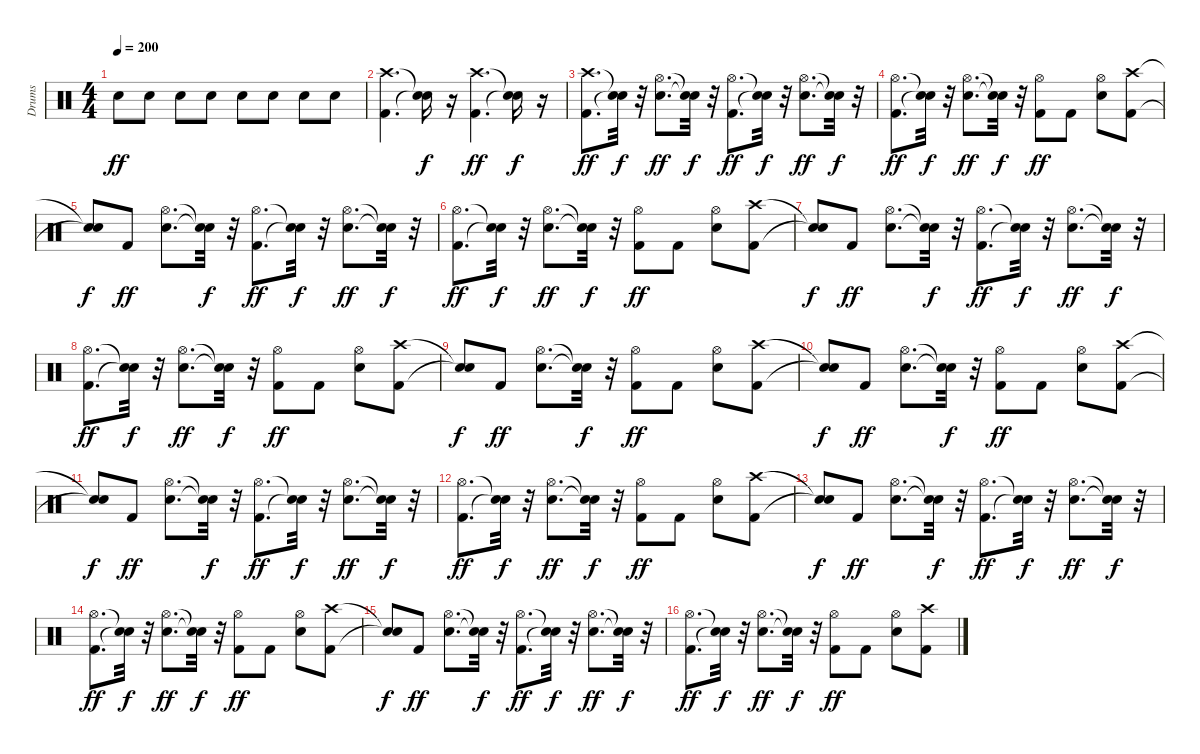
\track ("Drums" "Drums") {instrument percussion}
\staff {score}
\articulation defaults
\ts (4 4)
\tempo 200
\clef neutral
\ks c "Snare (hit) 2".8{dy ff} "Snare (hit) 2".8 "Snare (hit) 2".8 "Snare (hit) 2".8 "Snare (hit) 2".8 "Snare (hit) 2".8 "Snare (hit) 2".8 "Snare (hit) 2".8
|
("Kick (hit) 2" "Crash high (hit)").4{d} ("Snare (hit)"{t} "Snare (hit)"{t}).16{dy f} r.16 ("Kick (hit) 2" "Crash high (hit)").4{d dy ff} ("Snare (hit)"{t} "Snare (hit)"{t}).16{dy f} r.16 |
("Kick (hit) 2" "Crash high (hit)").8{d dy ff} ("Snare (hit)"{t} "Snare (hit)"{t}).32{dy f} r.32 ("Snare (hit) 2" "Hi-Hat (open)").8{d dy ff} ("Snare (hit)"{t} "Snare (hit)"{t}).32{dy f} r.32 ("Kick (hit) 2" "Hi-Hat (open)").8{d dy ff} ("Snare (hit)"{t} "Snare (hit)"{t}).32{dy f} r.32 ("Snare (hit) 2" "Hi-Hat (open)").8{d dy ff} ("Snare (hit)"{t} "Snare (hit)"{t}).32{dy f} r.32 |
("Kick (hit) 2" "Hi-Hat (open)").8{d dy ff} ("Snare (hit)"{t} "Snare (hit)"{t}).32{dy f} r.32 ("Snare (hit) 2" "Hi-Hat (open)").8{d dy ff} ("Snare (hit)"{t} "Snare (hit)"{t}).32{dy f} r.32 ("Kick (hit) 2" "Hi-Hat (open)").8{dy ff} "Kick (hit) 2".8 ("Snare (hit) 2" "Hi-Hat (open)").8 ("Kick (hit) 2" "Crash high (hit)").8 |
("Snare (hit)"{t} "Snare (hit)"{t}).8{dy f} "Kick (hit) 2".8{dy ff} ("Snare (hit) 2" "Hi-Hat (open)").8{d} ("Snare (hit)"{t} "Snare (hit)"{t}).32{dy f} r.32 ("Kick (hit) 2" "Hi-Hat (open)").8{d dy ff} ("Snare (hit)"{t} "Snare (hit)"{t}).32{dy f} r.32 ("Snare (hit) 2" "Hi-Hat (open)").8{d dy ff} ("Snare (hit)"{t} "Snare (hit)"{t}).32{dy f} r.32 |
("Kick (hit) 2" "Hi-Hat (open)").8{d dy ff} ("Snare (hit)"{t} "Snare (hit)"{t}).32{dy f} r.32 ("Snare (hit) 2" "Hi-Hat (open)").8{d dy ff} ("Snare (hit)"{t} "Snare (hit)"{t}).32{dy f} r.32 ("Kick (hit) 2" "Hi-Hat (open)").8{dy ff} "Kick (hit) 2".8 ("Snare (hit) 2" "Hi-Hat (open)").8 ("Kick (hit) 2" "Crash high (hit)").8 |
("Snare (hit)"{t} "Snare (hit)"{t}).8{dy f} "Kick (hit) 2".8{dy ff} ("Snare (hit) 2" "Hi-Hat (open)").8{d} ("Snare (hit)"{t} "Snare (hit)"{t}).32{dy f} r.32 ("Kick (hit) 2" "Hi-Hat (open)").8{d dy ff} ("Snare (hit)"{t} "Snare (hit)"{t}).32{dy f} r.32 ("Snare (hit) 2" "Hi-Hat (open)").8{d dy ff} ("Snare (hit)"{t} "Snare (hit)"{t}).32{dy f} r.32 |
("Kick (hit) 2" "Hi-Hat (open)").8{d dy ff} ("Snare (hit)"{t} "Snare (hit)"{t}).32{dy f} r.32 ("Snare (hit) 2" "Hi-Hat (open)").8{d dy ff} ("Snare (hit)"{t} "Snare (hit)"{t}).32{dy f} r.32 ("Kick (hit) 2" "Hi-Hat (open)").8{dy ff} "Kick (hit) 2".8 ("Snare (hit) 2" "Hi-Hat (open)").8 ("Kick (hit) 2" "Crash high (hit)").8 |
("Snare (hit)"{t} "Snare (hit)"{t}).8{dy f} "Kick (hit) 2".8{dy ff} ("Snare (hit) 2" "Hi-Hat (open)").8{d} ("Snare (hit)"{t} "Snare (hit)"{t}).32{dy f} r.32 ("Kick (hit) 2" "Hi-Hat (open)").8{dy ff} "Kick (hit) 2".8 ("Snare (hit) 2" "Hi-Hat (open)").8 ("Kick (hit) 2" "Crash high (hit)").8 |
("Snare (hit)"{t} "Snare (hit)"{t}).8{dy f} "Kick (hit) 2".8{dy ff} ("Snare (hit) 2" "Hi-Hat (open)").8{d} ("Snare (hit)"{t} "Snare (hit)"{t}).32{dy f} r.32 ("Kick (hit) 2" "Hi-Hat (open)").8{dy ff} "Kick (hit) 2".8 ("Snare (hit) 2" "Hi-Hat (open)").8 ("Kick (hit) 2" "Crash high (hit)").8 |
("Snare (hit)"{t} "Snare (hit)"{t}).8{dy f} "Kick (hit) 2".8{dy ff} ("Snare (hit) 2" "Hi-Hat (open)").8{d} ("Snare (hit)"{t} "Snare (hit)"{t}).32{dy f} r.32 ("Kick (hit) 2" "Hi-Hat (open)").8{d dy ff} ("Snare (hit)"{t} "Snare (hit)"{t}).32{dy f} r.32 ("Snare (hit) 2" "Hi-Hat (open)").8{d dy ff} ("Snare (hit)"{t} "Snare (hit)"{t}).32{dy f} r.32 |
("Kick (hit) 2" "Hi-Hat (open)").8{d dy ff} ("Snare (hit)"{t} "Snare (hit)"{t}).32{dy f} r.32 ("Snare (hit) 2" "Hi-Hat (open)").8{d dy ff} ("Snare (hit)"{t} "Snare (hit)"{t}).32{dy f} r.32 ("Kick (hit) 2" "Hi-Hat (open)").8{dy ff} "Kick (hit) 2".8 ("Snare (hit) 2" "Hi-Hat (open)").8 ("Kick (hit) 2" "Crash high (hit)").8 |
("Snare (hit)"{t} "Snare (hit)"{t}).8{dy f} "Kick (hit) 2".8{dy ff} ("Snare (hit) 2" "Hi-Hat (open)").8{d} ("Snare (hit)"{t} "Snare (hit)"{t}).32{dy f} r.32 ("Kick (hit) 2" "Hi-Hat (open)").8{d dy ff} ("Snare (hit)"{t} "Snare (hit)"{t}).32{dy f} r.32 ("Snare (hit) 2" "Hi-Hat (open)").8{d dy ff} ("Snare (hit)"{t} "Snare (hit)"{t}).32{dy f} r.32 |
("Kick (hit) 2" "Hi-Hat (open)").8{d dy ff} ("Snare (hit)"{t} "Snare (hit)"{t}).32{dy f} r.32 ("Snare (hit) 2" "Hi-Hat (open)").8{d dy ff} ("Snare (hit)"{t} "Snare (hit)"{t}).32{dy f} r.32 ("Kick (hit) 2" "Hi-Hat (open)").8{dy ff} "Kick (hit) 2".8 ("Snare (hit) 2" "Hi-Hat (open)").8 ("Kick (hit) 2" "Crash high (hit)").8 |
("Snare (hit)"{t} "Snare (hit)"{t}).8{dy f} "Kick (hit) 2".8{dy ff} ("Snare (hit) 2" "Hi-Hat (open)").8{d} ("Snare (hit)"{t} "Snare (hit)"{t}).32{dy f} r.32 ("Kick (hit) 2" "Hi-Hat (open)").8{d dy ff} ("Snare (hit)"{t} "Snare (hit)"{t}).32{dy f} r.32 ("Snare (hit) 2" "Hi-Hat (open)").8{d dy ff} ("Snare (hit)"{t} "Snare (hit)"{t}).32{dy f} r.32 |
("Kick (hit) 2" "Hi-Hat (open)").8{d dy ff} ("Snare (hit)"{t} "Snare (hit)"{t}).32{dy f} r.32 ("Snare (hit) 2" "Hi-Hat (open)").8{d dy ff} ("Snare (hit)"{t} "Snare (hit)"{t}).32{dy f} r.32 ("Kick (hit) 2" "Hi-Hat (open)").8{dy ff} "Kick (hit) 2".8 ("Snare (hit) 2" "Hi-Hat (open)").8 ("Kick (hit) 2" "Crash high (hit)").8
